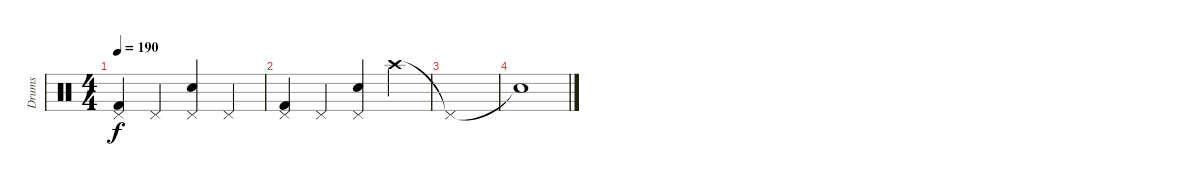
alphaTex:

\track ("Drums" "Drums") {instrument percussion}
\staff {score}
\articulation defaults
\ts (4 4)
\tempo 190
\clef neutral
\ks c
("Pedal Hi-Hat (hit)" "Kick (hit) 2").4{dy f} "Pedal Hi-Hat (hit)".4 ("Pedal Hi-Hat (hit)" "Electric Snare (hit)").4 "Pedal Hi-Hat (hit)".4 |
("Pedal Hi-Hat (hit)" "Kick (hit) 2").4 "Pedal Hi-Hat (hit)".4 ("Pedal Hi-Hat (hit)" "Electric Snare (hit)").4 "Crash high (hit)".4 |
"Pedal Hi-Hat (hit)"{t}.1 |
"Snare (hit)"{t}.1
